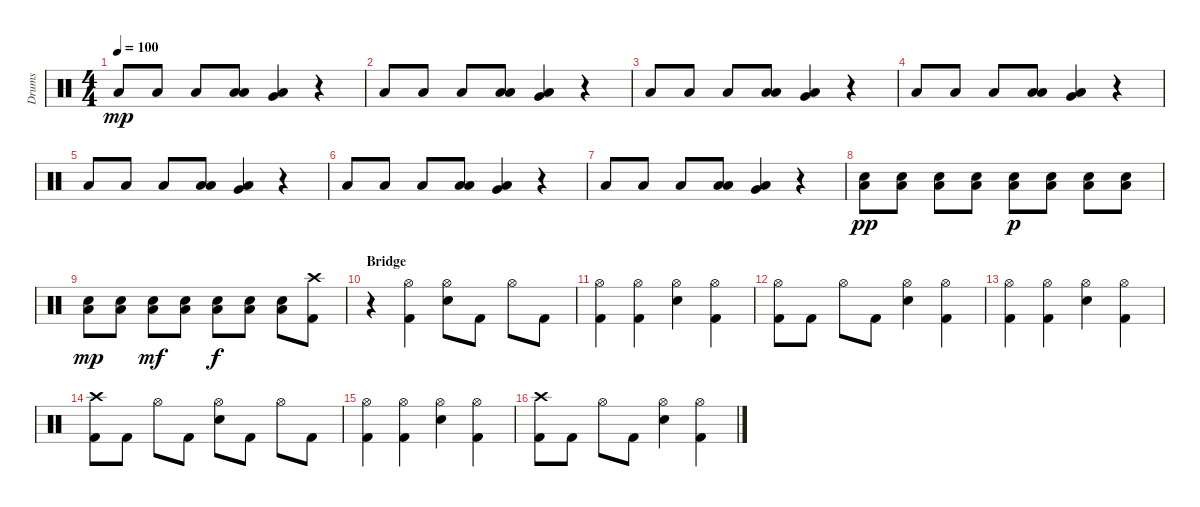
\track ("Drums" "Drums") {instrument percussion}
\staff {score}
\articulation defaults
\ts (4 4)
\tempo 100
\clef neutral
\ks c "Low Floor Tom (hit)".8{dy mp} "Low Floor Tom (hit)".8 "Low Floor Tom (hit)".8
("Low Floor Tom (hit)" "Low Floor Tom (hit)").8 ("Very Low Tom (hit)" "Low Floor Tom (hit)").4 r.4 |
"Low Floor Tom (hit)".8 "Low Floor Tom (hit)".8 "Low Floor Tom (hit)".8 ("Low Floor Tom (hit)" "Low Floor Tom (hit)").8 ("Very Low Tom (hit)" "Low Floor Tom (hit)").4 r.4 |
"Low Floor Tom (hit)".8 "Low Floor Tom (hit)".8 "Low Floor Tom (hit)".8 ("Low Floor Tom (hit)" "Low Floor Tom (hit)").8 ("Very Low Tom (hit)" "Low Floor Tom (hit)").4 r.4 |
"Low Floor Tom (hit)".8 "Low Floor Tom (hit)".8 "Low Floor Tom (hit)".8 ("Low Floor Tom (hit)" "Low Floor Tom (hit)").8 ("Very Low Tom (hit)" "Low Floor Tom (hit)").4 r.4 |
"Low Floor Tom (hit)".8 "Low Floor Tom (hit)".8 "Low Floor Tom (hit)".8 ("Low Floor Tom (hit)" "Low Floor Tom (hit)").8 ("Very Low Tom (hit)" "Low Floor Tom (hit)").4 r.4 |
"Low Floor Tom (hit)".8 "Low Floor Tom (hit)".8 "Low Floor Tom (hit)".8 ("Low Floor Tom (hit)" "Low Floor Tom (hit)").8 ("Very Low Tom (hit)" "Low Floor Tom (hit)").4 r.4 |
"Low Floor Tom (hit)".8 "Low Floor Tom (hit)".8 "Low Floor Tom (hit)".8 ("Low Floor Tom (hit)" "Low Floor Tom (hit)").8 ("Very Low Tom (hit)" "Low Floor Tom (hit)").4 r.4 |
("Low Floor Tom (hit)" "Electric Snare (hit)").8{dy pp} ("Low Floor Tom (hit)" "Electric Snare (hit)").8 ("Low Floor Tom (hit)" "Electric Snare (hit)").8 ("Low Floor Tom (hit)" "Electric Snare (hit)").8 ("Low Floor Tom (hit)" "Electric Snare (hit)").8{dy p} ("Low Floor Tom (hit)" "Electric Snare (hit)").8 ("Low Floor Tom (hit)" "Electric Snare (hit)").8 ("Low Floor Tom (hit)" "Electric Snare (hit)").8 |
("Low Floor Tom (hit)" "Electric Snare (hit)").8{dy mp} ("Low Floor Tom (hit)" "Electric Snare (hit)").8 ("Low Floor Tom (hit)" "Electric Snare (hit)").8{dy mf} ("Low Floor Tom (hit)" "Electric Snare (hit)").8 ("Low Floor Tom (hit)" "Electric Snare (hit)").8{dy f} ("Low Floor Tom (hit)" "Electric Snare (hit)").8 ("Low Floor Tom (hit)" "Electric Snare (hit)").8 ("Crash high (hit)" "Kick (hit) 2").8 |
\section ("" "Bridge")
r.4 ("Hi-Hat (open)" "Kick (hit) 2").4 ("Hi-Hat (open)" "Electric Snare (hit)").8 "Kick (hit) 2".8 "Hi-Hat (open)".8 "Kick (hit) 2".8 |
("Hi-Hat (open)" "Kick (hit) 2").4 ("Hi-Hat (open)" "Kick (hit) 2").4 ("Hi-Hat (open)" "Electric Snare (hit)").4 ("Hi-Hat (open)" "Kick (hit) 2").4 |
("Hi-Hat (open)" "Kick (hit) 2").8 "Kick (hit) 2".8 "Hi-Hat (open)".8 "Kick (hit) 2".8 ("Hi-Hat (open)" "Electric Snare (hit)").4 ("Hi-Hat (open)" "Kick (hit) 2").4 |
("Hi-Hat (open)" "Kick (hit) 2").4 ("Hi-Hat (open)" "Kick (hit) 2").4 ("Hi-Hat (open)" "Electric Snare (hit)").4 ("Hi-Hat (open)" "Kick (hit) 2").4 |
("Crash high (hit)" "Kick (hit) 2").8 "Kick (hit) 2".8 "Hi-Hat (open)".8 "Kick (hit) 2".8 ("Hi-Hat (open)" "Electric Snare (hit)").8 "Kick (hit) 2".8 "Hi-Hat (open)".8 "Kick (hit) 2".8 |
("Hi-Hat (open)" "Kick (hit) 2").4 ("Hi-Hat (open)" "Kick (hit) 2").4 ("Hi-Hat (open)" "Electric Snare (hit)").4 ("Hi-Hat (open)" "Kick (hit) 2").4 |
("Crash high (hit)" "Kick (hit) 2").8 "Kick (hit) 2".8 "Hi-Hat (open)".8 "Kick (hit) 2".8 ("Hi-Hat (open)" "Electric Snare (hit)").4 ("Hi-Hat (open)" "Kick (hit) 2").4
